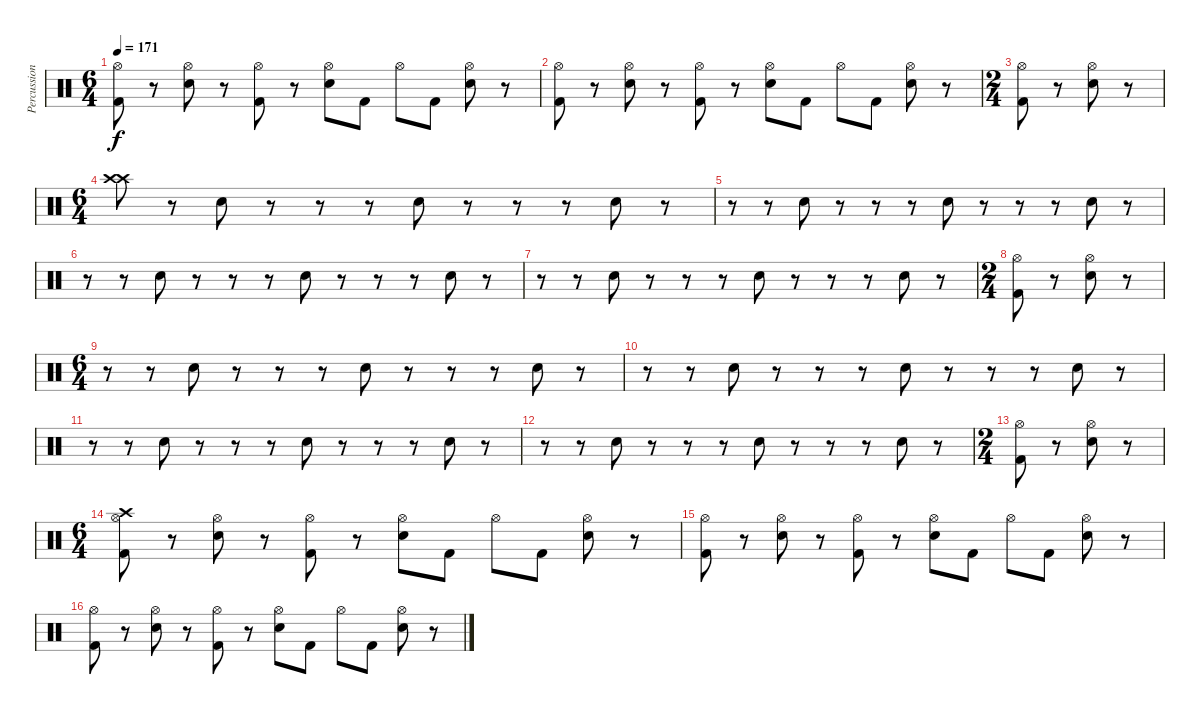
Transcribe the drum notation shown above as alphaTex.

\track ("Percussions" "Percussion") {instrument percussion}
\staff {score}
\articulation defaults
\ts (6 4)
\tempo 171
\clef neutral
\ks c
("Hi-Hat (open)" "Kick (hit) 2").8{dy f} r.8 ("Hi-Hat (open)" "Electric Snare (hit)").8 r.8 ("Hi-Hat (open)" "Kick (hit) 2").8 r.8 ("Hi-Hat (open)" "Electric Snare (hit)").8 "Kick (hit) 2".8 "Hi-Hat (open)".8 "Kick (hit) 2".8 ("Hi-Hat (open)" "Electric Snare (hit)").8 r.8 |
("Hi-Hat (open)" "Kick (hit) 2").8 r.8 ("Hi-Hat (open)" "Electric Snare (hit)").8 r.8 ("Hi-Hat (open)" "Kick (hit) 2").8 r.8 ("Hi-Hat (open)" "Electric Snare (hit)").8 "Kick (hit) 2".8 "Hi-Hat (open)".8 "Kick (hit) 2".8 ("Hi-Hat (open)" "Electric Snare (hit)").8 r.8 |
\ts (2 4)
("Hi-Hat (open)" "Kick (hit) 2").8 r.8 ("Hi-Hat (open)" "Electric Snare (hit)").8 r.8 |
\ts (6 4)
("Crash high (hit)" "Crash high (hit)").8 r.8 "Electric Snare (hit)".8 r.8 r.8 r.8 "Electric Snare (hit)".8 r.8 r.8 r.8 "Electric Snare (hit)".8 r.8 |
r.8 r.8 "Electric Snare (hit)".8 r.8 r.8 r.8 "Electric Snare (hit)".8 r.8 r.8 r.8 "Electric Snare (hit)".8 r.8 |
r.8 r.8 "Electric Snare (hit)".8 r.8 r.8 r.8 "Electric Snare (hit)".8 r.8 r.8 r.8 "Electric Snare (hit)".8 r.8 |
r.8 r.8 "Electric Snare (hit)".8 r.8 r.8 r.8 "Electric Snare (hit)".8 r.8 r.8 r.8 "Electric Snare (hit)".8 r.8 |
\ts (2 4)
("Hi-Hat (open)" "Kick (hit) 2").8 r.8 ("Hi-Hat (open)" "Electric Snare (hit)").8 r.8 |
\ts (6 4)
r.8 r.8 "Electric Snare (hit)".8 r.8 r.8 r.8 "Electric Snare (hit)".8 r.8 r.8 r.8 "Electric Snare (hit)".8 r.8 |
r.8 r.8 "Electric Snare (hit)".8 r.8 r.8 r.8 "Electric Snare (hit)".8 r.8 r.8 r.8 "Electric Snare (hit)".8 r.8 |
r.8 r.8 "Electric Snare (hit)".8 r.8 r.8 r.8 "Electric Snare (hit)".8 r.8 r.8 r.8 "Electric Snare (hit)".8 r.8 |
r.8 r.8 "Electric Snare (hit)".8 r.8 r.8 r.8 "Electric Snare (hit)".8 r.8 r.8 r.8 "Electric Snare (hit)".8 r.8 |
\ts (2 4)
("Hi-Hat (open)" "Kick (hit) 2").8 r.8 ("Hi-Hat (open)" "Electric Snare (hit)").8 r.8 |
\ts (6 4)
("Crash high (hit)" "Hi-Hat (open)" "Kick (hit) 2").8 r.8 ("Hi-Hat (open)" "Electric Snare (hit)").8 r.8 ("Hi-Hat (open)" "Kick (hit) 2").8 r.8 ("Hi-Hat (open)" "Electric Snare (hit)").8 "Kick (hit) 2".8 "Hi-Hat (open)".8 "Kick (hit) 2".8 ("Hi-Hat (open)" "Electric Snare (hit)").8 r.8 |
("Hi-Hat (open)" "Kick (hit) 2").8 r.8 ("Hi-Hat (open)" "Electric Snare (hit)").8 r.8 ("Hi-Hat (open)" "Kick (hit) 2").8 r.8 ("Hi-Hat (open)" "Electric Snare (hit)").8 "Kick (hit) 2".8 "Hi-Hat (open)".8 "Kick (hit) 2".8 ("Hi-Hat (open)" "Electric Snare (hit)").8 r.8 |
("Hi-Hat (open)" "Kick (hit) 2").8 r.8 ("Hi-Hat (open)" "Electric Snare (hit)").8 r.8 ("Hi-Hat (open)" "Kick (hit) 2").8 r.8 ("Hi-Hat (open)" "Electric Snare (hit)").8 "Kick (hit) 2".8 "Hi-Hat (open)".8 "Kick (hit) 2".8 ("Hi-Hat (open)" "Electric Snare (hit)").8 r.8
